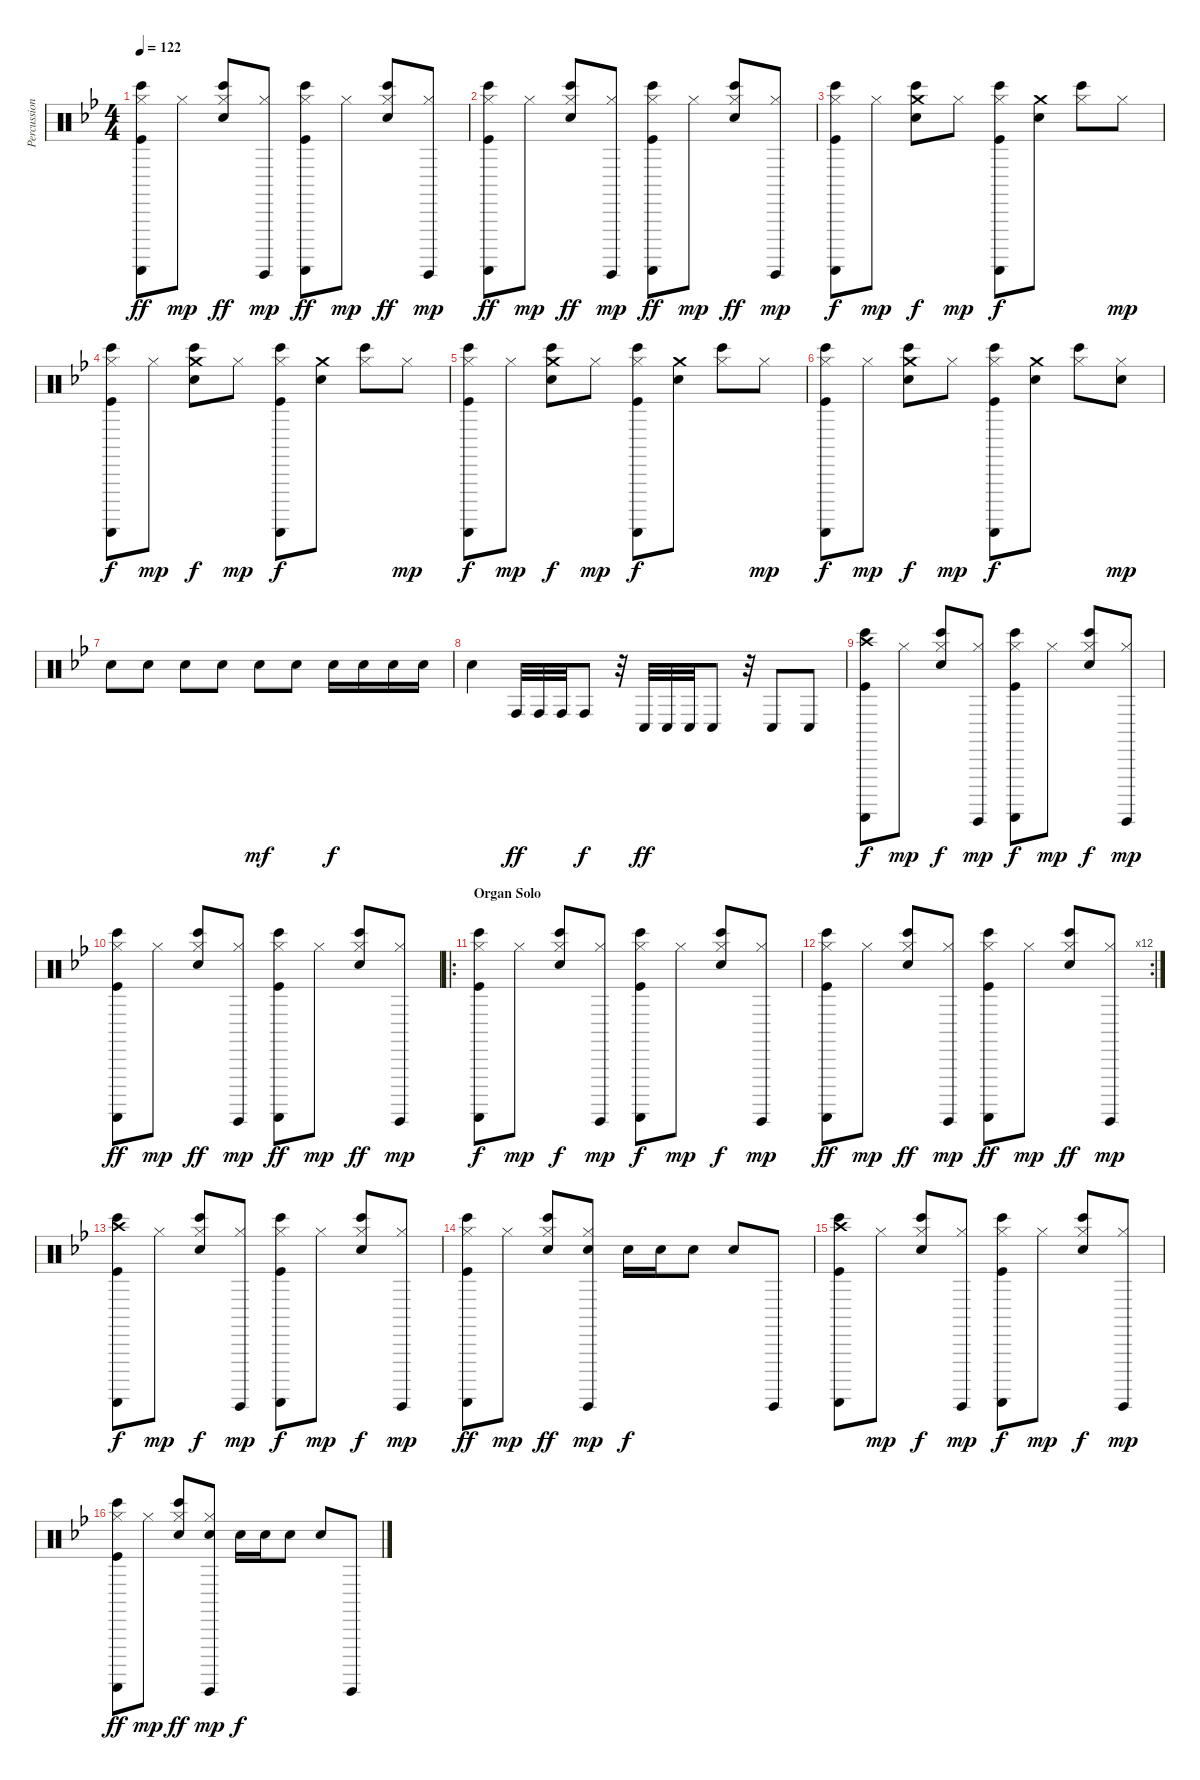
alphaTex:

\track ("Percussions" "Percussion") {instrument percussion}
\staff {score}
\articulation defaults
\ts (4 4)
\tempo 122
\clef neutral
\ks bb
("Hi-Hat (closed)" "Bongo High (hit)" "Guiro (scrap-return)" "Kick (hit)").8{dy ff} "Hi-Hat (closed)".8{dy mp} ("Hi-Hat (closed)" "Bongo High (hit)" "Snare (hit) 2").8{dy ff} ("Hi-Hat (closed)" "Guiro (hit)").8{dy mp} ("Hi-Hat (closed)" "Bongo High (hit)" "Guiro (scrap-return)" "Kick (hit)").8{dy ff} "Hi-Hat (closed)".8{dy mp} ("Hi-Hat (closed)" "Bongo High (hit)" "Snare (hit) 2").8{dy ff} ("Hi-Hat (closed)" "Guiro (hit)").8{dy mp} |
("Hi-Hat (closed)" "Bongo High (hit)" "Guiro (scrap-return)" "Kick (hit)").8{dy ff} "Hi-Hat (closed)".8{dy mp} ("Hi-Hat (closed)" "Bongo High (hit)" "Snare (hit) 2").8{dy ff} ("Hi-Hat (closed)" "Guiro (hit)").8{dy mp} ("Hi-Hat (closed)" "Bongo High (hit)" "Guiro (scrap-return)" "Kick (hit)").8{dy ff} "Hi-Hat (closed)".8{dy mp} ("Hi-Hat (closed)" "Bongo High (hit)" "Snare (hit) 2").8{dy ff} ("Hi-Hat (closed)" "Guiro (hit)").8{dy mp} |
("Hi-Hat (closed)" "Bongo High (hit)" "Guiro (scrap-return)" "Kick (hit)").8{dy f} "Hi-Hat (closed)".8{dy mp} ("Crash medium (hit)" "Bongo High (hit)" "Snare (hit) 2").8{dy f} "Hi-Hat (closed)".8{dy mp} ("Hi-Hat (closed)" "Bongo High (hit)" "Guiro (scrap-return)" "Kick (hit)").8{dy f} ("Crash medium (hit)" "Snare (hit) 2").8 ("Hi-Hat (closed)" "Bongo High (hit)").8 "Hi-Hat (closed)".8{dy mp} |
("Hi-Hat (closed)" "Bongo High (hit)" "Guiro (scrap-return)" "Kick (hit)").8{dy f} "Hi-Hat (closed)".8{dy mp} ("Crash medium (hit)" "Bongo High (hit)" "Snare (hit) 2").8{dy f} "Hi-Hat (closed)".8{dy mp} ("Hi-Hat (closed)" "Bongo High (hit)" "Guiro (scrap-return)" "Kick (hit)").8{dy f} ("Crash medium (hit)" "Snare (hit) 2").8 ("Hi-Hat (closed)" "Bongo High (hit)").8 "Hi-Hat (closed)".8{dy mp} |
("Hi-Hat (closed)" "Bongo High (hit)" "Guiro (scrap-return)" "Kick (hit)").8{dy f} "Hi-Hat (closed)".8{dy mp} ("Crash medium (hit)" "Bongo High (hit)" "Snare (hit) 2").8{dy f} "Hi-Hat (closed)".8{dy mp} ("Hi-Hat (closed)" "Bongo High (hit)" "Guiro (scrap-return)" "Kick (hit)").8{dy f} ("Crash medium (hit)" "Snare (hit) 2").8 ("Hi-Hat (closed)" "Bongo High (hit)").8 "Hi-Hat (closed)".8{dy mp} |
("Hi-Hat (closed)" "Bongo High (hit)" "Guiro (scrap-return)" "Kick (hit)").8{dy f} "Hi-Hat (closed)".8{dy mp} ("Crash medium (hit)" "Bongo High (hit)" "Snare (hit) 2").8{dy f} "Hi-Hat (closed)".8{dy mp} ("Hi-Hat (closed)" "Bongo High (hit)" "Guiro (scrap-return)" "Kick (hit)").8{dy f} ("Crash medium (hit)" "Snare (hit) 2").8 ("Hi-Hat (closed)" "Bongo High (hit)").8 ("Hi-Hat (closed)" "Snare (hit) 2").8{dy mp} |
"Snare (hit) 2".8 "Snare (hit) 2".8 "Snare (hit) 2".8 "Snare (hit) 2".8 "Snare (hit) 2".8{dy mf} "Snare (hit) 2".8 "Snare (hit) 2".16{dy f} "Snare (hit) 2".16 "Snare (hit) 2".16 "Snare (hit) 2".16 |
"Snare (hit) 2".4 "Conga high (hit)".32{dy ff balance 0} "Conga high (hit)".32 "Conga high (hit)".32 "Conga high (hit)".8{dy f} r.32 "Conga low (hit)".32{dy ff balance 16} "Conga low (hit)".32 "Conga low (hit)".32 "Conga low (hit)".8 r.32 "Conga low (hit)".8{balance 8} "Conga low (hit)".8 |
("Crash high (hit)" "Bongo High (hit)" "Guiro (scrap-return)" "Kick (hit)").8{dy f} "Hi-Hat (closed)".8{dy mp} ("Hi-Hat (closed)" "Bongo High (hit)" "Snare (hit) 2").8{dy f} ("Hi-Hat (closed)" "Guiro (hit)").8{dy mp} ("Hi-Hat (closed)" "Bongo High (hit)" "Guiro (scrap-return)" "Kick (hit)").8{dy f} "Hi-Hat (closed)".8{dy mp} ("Hi-Hat (closed)" "Bongo High (hit)" "Snare (hit) 2").8{dy f} ("Hi-Hat (closed)" "Guiro (hit)").8{dy mp} |
("Hi-Hat (closed)" "Bongo High (hit)" "Guiro (scrap-return)" "Kick (hit)").8{dy ff} "Hi-Hat (closed)".8{dy mp} ("Hi-Hat (closed)" "Bongo High (hit)" "Snare (hit) 2").8{dy ff} ("Hi-Hat (closed)" "Guiro (hit)").8{dy mp} ("Hi-Hat (closed)" "Bongo High (hit)" "Guiro (scrap-return)" "Kick (hit)").8{dy ff} "Hi-Hat (closed)".8{dy mp} ("Hi-Hat (closed)" "Bongo High (hit)" "Snare (hit) 2").8{dy ff} ("Hi-Hat (closed)" "Guiro (hit)").8{dy mp} |
\ro
\section ("" "Organ Solo")
("Hi-Hat (closed)" "Bongo High (hit)" "Guiro (scrap-return)" "Kick (hit)").8{dy f} "Hi-Hat (closed)".8{dy mp} ("Hi-Hat (closed)" "Bongo High (hit)" "Snare (hit) 2").8{dy f} ("Hi-Hat (closed)" "Guiro (hit)").8{dy mp} ("Hi-Hat (closed)" "Bongo High (hit)" "Guiro (scrap-return)" "Kick (hit)").8{dy f} "Hi-Hat (closed)".8{dy mp} ("Hi-Hat (closed)" "Bongo High (hit)" "Snare (hit) 2").8{dy f} ("Hi-Hat (closed)" "Guiro (hit)").8{dy mp} |
\rc 12
("Hi-Hat (closed)" "Bongo High (hit)" "Guiro (scrap-return)" "Kick (hit)").8{dy ff} "Hi-Hat (closed)".8{dy mp} ("Hi-Hat (closed)" "Bongo High (hit)" "Snare (hit) 2").8{dy ff} ("Hi-Hat (closed)" "Guiro (hit)").8{dy mp} ("Hi-Hat (closed)" "Bongo High (hit)" "Guiro (scrap-return)" "Kick (hit)").8{dy ff} "Hi-Hat (closed)".8{dy mp} ("Hi-Hat (closed)" "Bongo High (hit)" "Snare (hit) 2").8{dy ff} ("Hi-Hat (closed)" "Guiro (hit)").8{dy mp} |
("Crash high (hit)" "Bongo High (hit)" "Guiro (scrap-return)" "Kick (hit)").8{dy f} "Hi-Hat (closed)".8{dy mp} ("Hi-Hat (closed)" "Bongo High (hit)" "Snare (hit) 2").8{dy f} ("Hi-Hat (closed)" "Guiro (hit)").8{dy mp} ("Hi-Hat (closed)" "Bongo High (hit)" "Guiro (scrap-return)" "Kick (hit)").8{dy f} "Hi-Hat (closed)".8{dy mp} ("Hi-Hat (closed)" "Bongo High (hit)" "Snare (hit) 2").8{dy f} ("Hi-Hat (closed)" "Guiro (hit)").8{dy mp} |
("Hi-Hat (closed)" "Bongo High (hit)" "Guiro (scrap-return)" "Kick (hit)").8{dy ff} "Hi-Hat (closed)".8{dy mp} ("Hi-Hat (closed)" "Bongo High (hit)" "Snare (hit) 2").8{dy ff} ("Hi-Hat (closed)" "Guiro (hit)" "Snare (hit) 2").8{dy mp} "Snare (hit) 2".16{dy f} "Snare (hit) 2".16 "Snare (hit) 2".8 "Snare (hit) 2".8 "Guiro (hit)".8 |
("Crash high (hit)" "Bongo High (hit)" "Guiro (scrap-return)" "Kick (hit)").8 "Hi-Hat (closed)".8{dy mp} ("Hi-Hat (closed)" "Bongo High (hit)" "Snare (hit) 2").8{dy f} ("Hi-Hat (closed)" "Guiro (hit)").8{dy mp} ("Hi-Hat (closed)" "Bongo High (hit)" "Guiro (scrap-return)" "Kick (hit)").8{dy f} "Hi-Hat (closed)".8{dy mp} ("Hi-Hat (closed)" "Bongo High (hit)" "Snare (hit) 2").8{dy f} ("Hi-Hat (closed)" "Guiro (hit)").8{dy mp} |
("Hi-Hat (closed)" "Bongo High (hit)" "Guiro (scrap-return)" "Kick (hit)").8{dy ff} "Hi-Hat (closed)".8{dy mp} ("Hi-Hat (closed)" "Bongo High (hit)" "Snare (hit) 2").8{dy ff} ("Hi-Hat (closed)" "Guiro (hit)" "Snare (hit) 2").8{dy mp} "Snare (hit) 2".16{dy f} "Snare (hit) 2".16 "Snare (hit) 2".8 "Snare (hit) 2".8 "Guiro (hit)".8
